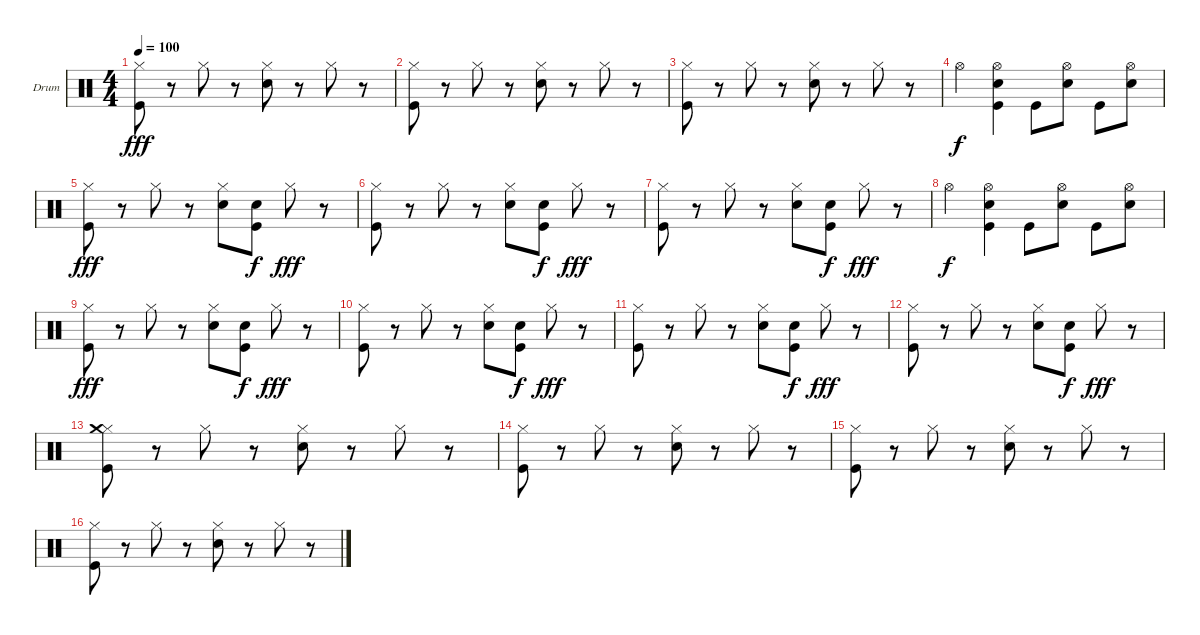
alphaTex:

\defaultSystemsLayout 4
\bracketExtendMode groupsimilarinstruments
\firstSystemTrackNameOrientation horizontal
\otherSystemsTrackNameOrientation horizontal
\track ("Drum" "Drum") {instrument percussion}
\staff {score}
\articulation defaults
\ts (4 4)
\tempo 100
\clef neutral
\scale
0.333333
\ks c
("Hi-Hat (closed)" "Kick (hit)").8{dy fff} r.8 "Hi-Hat (closed)".8 r.8 ("Hi-Hat (closed)" "Snare (hit) 2").8 r.8 "Hi-Hat (closed)".8 r.8 |
\scale
0.333333 ("Hi-Hat (closed)" "Kick (hit)").8 r.8 "Hi-Hat (closed)".8 r.8 ("Hi-Hat (closed)" "Snare (hit) 2").8 r.8 "Hi-Hat (closed)".8 r.8 |
\scale
0.333333 ("Hi-Hat (closed)" "Kick (hit)").8 r.8 "Hi-Hat (closed)".8 r.8 ("Hi-Hat (closed)" "Snare (hit) 2").8 r.8 "Hi-Hat (closed)".8 r.8 |
\scale
0.333333 "Hi-Hat (open)".4{dy f} ("Kick (hit)" "Snare (hit) 2" "Hi-Hat (open)").4 "Kick (hit)".8 ("Hi-Hat (open)" "Snare (hit) 2").8 "Kick (hit)".8 ("Snare (hit) 2" "Hi-Hat (open)").8 |
\scale
0.333333 ("Hi-Hat (closed)" "Kick (hit)").8{dy fff} r.8 "Hi-Hat (closed)".8 r.8 ("Hi-Hat (closed)" "Snare (hit) 2").8 ("Snare (hit) 2" "Kick (hit)").8{dy f} "Hi-Hat (closed)".8{dy fff} r.8 |
\scale
0.333333 ("Hi-Hat (closed)" "Kick (hit)").8 r.8 "Hi-Hat (closed)".8 r.8 ("Hi-Hat (closed)" "Snare (hit) 2").8 ("Snare (hit) 2" "Kick (hit)").8{dy f} "Hi-Hat (closed)".8{dy fff} r.8 |
\scale
0.333333 ("Hi-Hat (closed)" "Kick (hit)").8 r.8 "Hi-Hat (closed)".8 r.8 ("Hi-Hat (closed)" "Snare (hit) 2").8 ("Snare (hit) 2" "Kick (hit)").8{dy f} "Hi-Hat (closed)".8{dy fff} r.8 |
\scale
0.333333 "Hi-Hat (open)".4{dy f} ("Kick (hit)" "Snare (hit) 2" "Hi-Hat (open)").4 "Kick (hit)".8 ("Hi-Hat (open)" "Snare (hit) 2").8 "Kick (hit)".8 ("Snare (hit) 2" "Hi-Hat (open)").8 |
\scale
0.333333 ("Hi-Hat (closed)" "Kick (hit)").8{dy fff} r.8 "Hi-Hat (closed)".8 r.8 ("Hi-Hat (closed)" "Snare (hit) 2").8 ("Snare (hit) 2" "Kick (hit)").8{dy f} "Hi-Hat (closed)".8{dy fff} r.8 |
\scale
0.333333 ("Hi-Hat (closed)" "Kick (hit)").8 r.8 "Hi-Hat (closed)".8 r.8 ("Hi-Hat (closed)" "Snare (hit) 2").8 ("Snare (hit) 2" "Kick (hit)").8{dy f} "Hi-Hat (closed)".8{dy fff} r.8 |
\scale
0.333333 ("Hi-Hat (closed)" "Kick (hit)").8 r.8 "Hi-Hat (closed)".8 r.8 ("Hi-Hat (closed)" "Snare (hit) 2").8 ("Snare (hit) 2" "Kick (hit)").8{dy f} "Hi-Hat (closed)".8{dy fff} r.8 |
\scale
0.333333 ("Hi-Hat (closed)" "Kick (hit)").8 r.8 "Hi-Hat (closed)".8 r.8 ("Hi-Hat (closed)" "Snare (hit) 2").8 ("Snare (hit) 2" "Kick (hit)").8{dy f} "Hi-Hat (closed)".8{dy fff} r.8 |
\scale
0.333333 ("Hi-Hat (closed)" "Crash medium (hit)" "Kick (hit)").8 r.8 "Hi-Hat (closed)".8 r.8 ("Hi-Hat (closed)" "Snare (hit) 2").8 r.8 "Hi-Hat (closed)".8 r.8 |
\scale
0.333333 ("Hi-Hat (closed)" "Kick (hit)").8 r.8 "Hi-Hat (closed)".8 r.8 ("Hi-Hat (closed)" "Snare (hit) 2").8 r.8 "Hi-Hat (closed)".8 r.8 |
\scale
0.333333 ("Hi-Hat (closed)" "Kick (hit)").8 r.8 "Hi-Hat (closed)".8 r.8 ("Hi-Hat (closed)" "Snare (hit) 2").8 r.8 "Hi-Hat (closed)".8 r.8 |
\scale
0.333333 ("Hi-Hat (closed)" "Kick (hit)").8 r.8 "Hi-Hat (closed)".8 r.8 ("Hi-Hat (closed)" "Snare (hit) 2").8 r.8 "Hi-Hat (closed)".8 r.8
